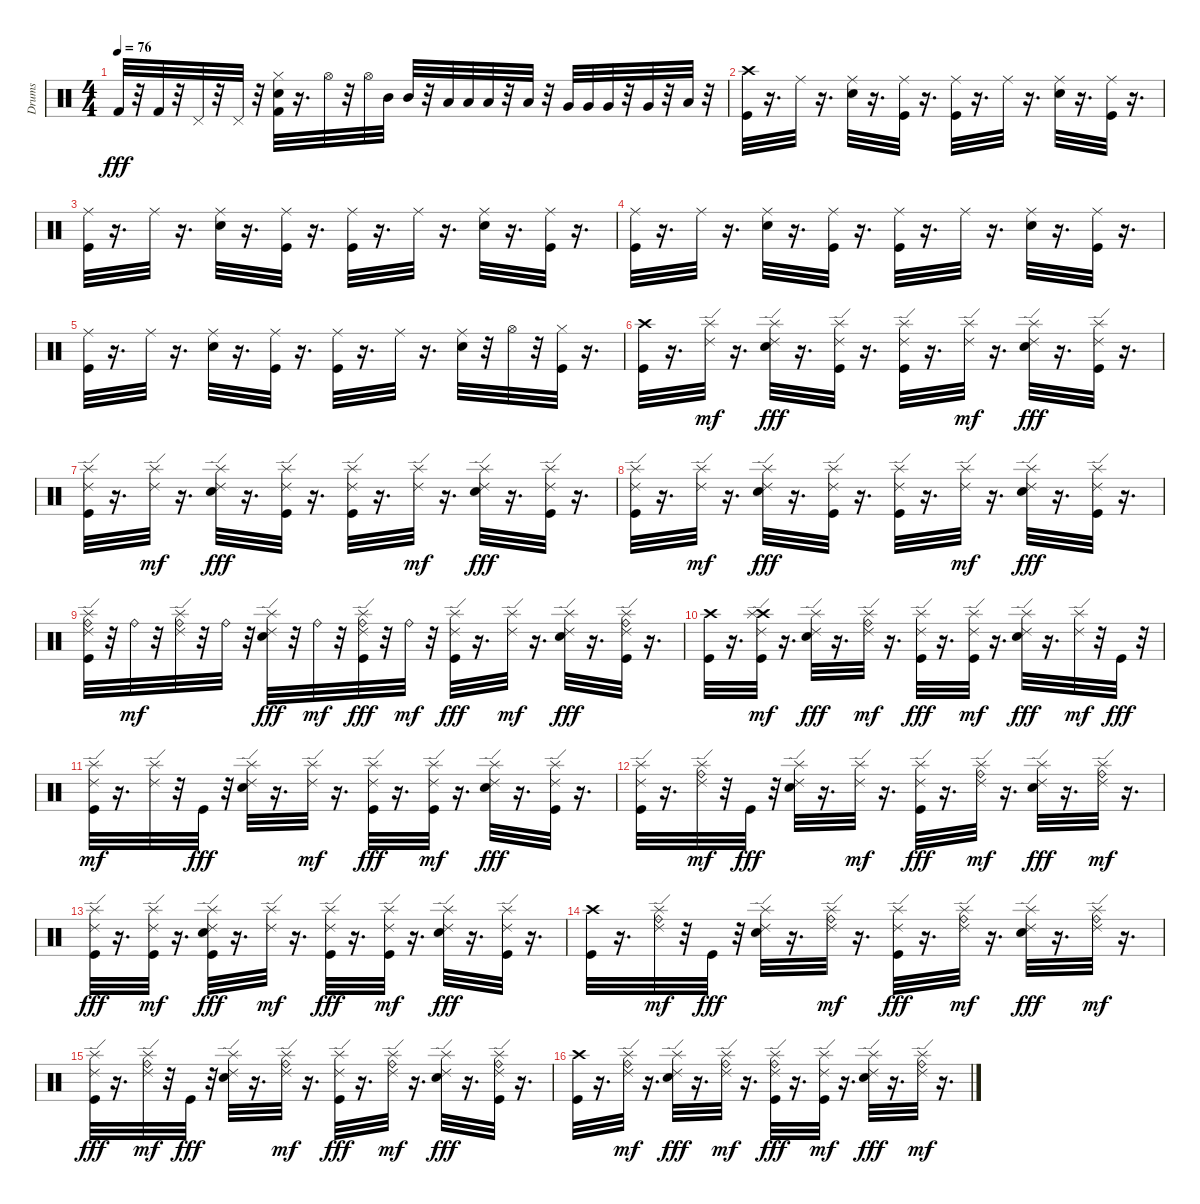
\track ("Drums" "Drums") {instrument percussion}
\staff {score}
\articulation defaults
\ts (4 4)
\tempo 76
\clef neutral
\ks c "Kick (hit) 2".32{dy fff}
r.32 "Kick (hit) 2".32 r.32 "Pedal Hi-Hat (hit)".32 r.32 "Pedal Hi-Hat (hit)".32 r.32 ("Hi-Hat (closed)" "Kick (hit) 2" "Electric Snare (hit)").32 r.16{d} "Hi-Hat (open)".32 r.32 "Hi-Hat (open)".32 "Mid Tom (hit)".32 "Mid Tom (hit)".32 r.32 "Low Tom (hit)".32 "Low Tom (hit)".32 "Low Tom (hit)".32 r.32 "Low Tom (hit)".32 r.32 "Very Low Tom (hit)".32 "Very Low Tom (hit)".32 "Very Low Tom (hit)".32 r.32 "Very Low Tom (hit)".32 r.32 "Low Floor Tom (hit)".32 r.32 |
("Kick (hit)" "Crash high (hit)").32 r.16{d} "Ride (middle)".32 r.16{d} ("Ride (middle)" "Electric Snare (hit)").32 r.16{d} ("Ride (middle)" "Kick (hit)").32 r.16{d} ("Ride (middle)" "Kick (hit)").32 r.16{d} "Ride (middle)".32 r.16{d} ("Ride (middle)" "Electric Snare (hit)").32 r.16{d} ("Ride (middle)" "Kick (hit)").32 r.16{d} |
("Ride (middle)" "Kick (hit)").32 r.16{d} "Ride (middle)".32 r.16{d} ("Ride (middle)" "Electric Snare (hit)").32 r.16{d} ("Ride (middle)" "Kick (hit)").32 r.16{d} ("Ride (middle)" "Kick (hit)").32 r.16{d} "Ride (middle)".32 r.16{d} ("Ride (middle)" "Electric Snare (hit)").32 r.16{d} ("Ride (middle)" "Kick (hit)").32 r.16{d} |
("Ride (middle)" "Kick (hit)").32 r.16{d} "Ride (middle)".32 r.16{d} ("Ride (middle)" "Electric Snare (hit)").32 r.16{d} ("Ride (middle)" "Kick (hit)").32 r.16{d} ("Ride (middle)" "Kick (hit)").32 r.16{d} "Ride (middle)".32 r.16{d} ("Ride (middle)" "Electric Snare (hit)").32 r.16{d} ("Ride (middle)" "Kick (hit)").32 r.16{d} |
("Ride (middle)" "Kick (hit)").32 r.16{d} "Ride (middle)".32 r.16{d} ("Ride (middle)" "Electric Snare (hit)").32 r.16{d} ("Ride (middle)" "Kick (hit)").32 r.16{d} ("Ride (middle)" "Kick (hit)").32 r.16{d} "Ride (middle)".32 r.16{d} ("Ride (middle)" "Electric Snare (hit)").32 r.32 "Hi-Hat (open)".32 r.32 ("Hi-Hat (closed)" "Kick (hit)").32 r.16{d} |
("Kick (hit)" "Crash high (hit)").32 r.16{d} ("Ride (edge) 2" "Splash (hit)").32{dy mf} r.16{d} ("Ride (edge) 2" "Splash (hit)" "Electric Snare (hit)").32{dy fff} r.16{d} ("Ride (edge) 2" "Splash (hit)" "Kick (hit)").32 r.16{d} ("Ride (edge) 2" "Splash (hit)" "Kick (hit)").32 r.16{d} ("Ride (edge) 2" "Splash (hit)").32{dy mf} r.16{d} ("Ride (edge) 2" "Splash (hit)" "Electric Snare (hit)").32{dy fff} r.16{d} ("Ride (edge) 2" "Splash (hit)" "Kick (hit)").32 r.16{d} |
("Ride (edge) 2" "Splash (hit)" "Kick (hit)").32 r.16{d} ("Ride (edge) 2" "Splash (hit)").32{dy mf} r.16{d} ("Ride (edge) 2" "Splash (hit)" "Electric Snare (hit)").32{dy fff} r.16{d} ("Ride (edge) 2" "Splash (hit)" "Kick (hit)").32 r.16{d} ("Ride (edge) 2" "Splash (hit)" "Kick (hit)").32 r.16{d} ("Ride (edge) 2" "Splash (hit)").32{dy mf} r.16{d} ("Ride (edge) 2" "Splash (hit)" "Electric Snare (hit)").32{dy fff} r.16{d} ("Ride (edge) 2" "Splash (hit)" "Kick (hit)").32 r.16{d} |
("Ride (edge) 2" "Splash (hit)" "Kick (hit)").32 r.16{d} ("Ride (edge) 2" "Splash (hit)").32{dy mf} r.16{d} ("Ride (edge) 2" "Splash (hit)" "Electric Snare (hit)").32{dy fff} r.16{d} ("Ride (edge) 2" "Splash (hit)" "Kick (hit)").32 r.16{d} ("Ride (edge) 2" "Splash (hit)" "Kick (hit)").32 r.16{d} ("Ride (edge) 2" "Splash (hit)").32{dy mf} r.16{d} ("Ride (edge) 2" "Splash (hit)" "Electric Snare (hit)").32{dy fff} r.16{d} ("Ride (edge) 2" "Splash (hit)" "Kick (hit)").32 r.16{d} |
("Ride (bell)" "Ride (edge) 2" "Splash (hit)" "Kick (hit)").32 r.32 "Ride (bell)".32{dy mf} r.32 ("Ride (bell)" "Ride (edge) 2" "Splash (hit)").32 r.32 "Ride (bell)".32 r.32 ("Ride (edge) 2" "Splash (hit)" "Electric Snare (hit)").32{dy fff} r.32 "Ride (bell)".32{dy mf} r.32 ("Ride (bell)" "Ride (edge) 2" "Splash (hit)" "Kick (hit)").32{dy fff} r.32 "Ride (bell)".32{dy mf} r.32 ("Ride (edge) 2" "Splash (hit)" "Kick (hit)").32{dy fff} r.16{d} ("Ride (edge) 2" "Splash (hit)").32{dy mf} r.16{d} ("Ride (edge) 2" "Splash (hit)" "Electric Snare (hit)").32{dy fff} r.16{d} ("Ride (bell)" "Ride (edge) 2" "Splash (hit)" "Kick (hit)").32 r.16{d} |
("Kick (hit)" "Crash high (hit)").32 r.16{d} ("Kick (hit)" "Crash high (hit)" "Ride (edge) 2" "Splash (hit)").32{dy mf} r.16{d} ("Ride (edge) 2" "Splash (hit)" "Electric Snare (hit)").32{dy fff} r.16{d} ("Ride (bell)" "Ride (edge) 2" "Splash (hit)").32{dy mf} r.16{d} ("Ride (edge) 2" "Splash (hit)" "Kick (hit)").32{dy fff} r.16{d} ("Kick (hit)" "Ride (edge) 2" "Splash (hit)").32{dy mf} r.16{d} ("Ride (edge) 2" "Splash (hit)" "Electric Snare (hit)").32{dy fff} r.16{d} ("Ride (edge) 2" "Splash (hit)").32{dy mf} r.32 "Kick (hit)".32{dy fff} r.32 |
("Kick (hit)" "Ride (edge) 2" "Splash (hit)").32{dy mf} r.16{d} ("Ride (edge) 2" "Splash (hit)").32 r.32 "Kick (hit)".32{dy fff} r.32 ("Ride (edge) 2" "Splash (hit)" "Electric Snare (hit)").32 r.16{d} ("Ride (edge) 2" "Splash (hit)").32{dy mf} r.16{d} ("Ride (edge) 2" "Splash (hit)" "Kick (hit)").32{dy fff} r.16{d} ("Kick (hit)" "Ride (edge) 2" "Splash (hit)").32{dy mf} r.16{d} ("Ride (edge) 2" "Splash (hit)" "Electric Snare (hit)").32{dy fff} r.16{d} ("Ride (edge) 2" "Splash (hit)" "Kick (hit)").32 r.16{d} |
("Ride (edge) 2" "Splash (hit)" "Kick (hit)").32 r.16{d} ("Ride (bell)" "Ride (edge) 2" "Splash (hit)").32{dy mf} r.32 "Kick (hit)".32{dy fff} r.32 ("Ride (edge) 2" "Splash (hit)" "Electric Snare (hit)").32 r.16{d} ("Ride (edge) 2" "Splash (hit)").32{dy mf} r.16{d} ("Ride (edge) 2" "Splash (hit)" "Kick (hit)").32{dy fff} r.16{d} ("Ride (bell)" "Ride (edge) 2" "Splash (hit)").32{dy mf} r.16{d} ("Ride (edge) 2" "Splash (hit)" "Electric Snare (hit)").32{dy fff} r.16{d} ("Ride (bell)" "Ride (edge) 2" "Splash (hit)").32{dy mf} r.16{d} |
("Ride (edge) 2" "Splash (hit)" "Kick (hit)").32{dy fff} r.16{d} ("Kick (hit)" "Ride (edge) 2" "Splash (hit)").32{dy mf} r.16{d} ("Kick (hit)" "Ride (edge) 2" "Splash (hit)" "Electric Snare (hit)").32{dy fff} r.16{d} ("Ride (edge) 2" "Splash (hit)").32{dy mf} r.16{d} ("Ride (edge) 2" "Splash (hit)" "Kick (hit)").32{dy fff} r.16{d} ("Kick (hit)" "Ride (edge) 2" "Splash (hit)").32{dy mf} r.16{d} ("Ride (edge) 2" "Splash (hit)" "Electric Snare (hit)").32{dy fff} r.16{d} ("Ride (edge) 2" "Splash (hit)" "Kick (hit)").32 r.16{d} |
("Kick (hit)" "Crash high (hit)").32 r.16{d} ("Ride (bell)" "Ride (edge) 2" "Splash (hit)").32{dy mf} r.32 "Kick (hit)".32{dy fff} r.32 ("Ride (edge) 2" "Splash (hit)" "Electric Snare (hit)").32 r.16{d} ("Ride (bell)" "Ride (edge) 2" "Splash (hit)").32{dy mf} r.16{d} ("Ride (edge) 2" "Splash (hit)" "Kick (hit)").32{dy fff} r.16{d} ("Ride (bell)" "Ride (edge) 2" "Splash (hit)").32{dy mf} r.16{d} ("Ride (edge) 2" "Splash (hit)" "Electric Snare (hit)").32{dy fff} r.16{d} ("Ride (bell)" "Ride (edge) 2" "Splash (hit)").32{dy mf} r.16{d} |
("Ride (edge) 2" "Splash (hit)" "Kick (hit)").32{dy fff} r.16{d} ("Ride (bell)" "Ride (edge) 2" "Splash (hit)").32{dy mf} r.32 "Kick (hit)".32{dy fff} r.32 ("Ride (edge) 2" "Splash (hit)" "Electric Snare (hit)").32 r.16{d} ("Ride (bell)" "Ride (edge) 2" "Splash (hit)").32{dy mf} r.16{d} ("Ride (edge) 2" "Splash (hit)" "Kick (hit)").32{dy fff} r.16{d} ("Ride (bell)" "Ride (edge) 2" "Splash (hit)").32{dy mf} r.16{d} ("Ride (edge) 2" "Splash (hit)" "Electric Snare (hit)").32{dy fff} r.16{d} ("Ride (bell)" "Ride (edge) 2" "Splash (hit)" "Kick (hit)").32 r.16{d} |
("Kick (hit)" "Crash high (hit)").32 r.16{d} ("Ride (bell)" "Ride (edge) 2" "Splash (hit)").32{dy mf} r.16{d} ("Ride (edge) 2" "Splash (hit)" "Electric Snare (hit)").32{dy fff} r.16{d} ("Ride (bell)" "Ride (edge) 2" "Splash (hit)").32{dy mf} r.16{d} ("Ride (bell)" "Ride (edge) 2" "Splash (hit)" "Kick (hit)").32{dy fff} r.16{d} ("Kick (hit)" "Ride (edge) 2" "Splash (hit)").32{dy mf} r.16{d} ("Ride (edge) 2" "Splash (hit)" "Electric Snare (hit)").32{dy fff} r.16{d} ("Ride (bell)" "Ride (edge) 2" "Splash (hit)").32{dy mf} r.16{d}
